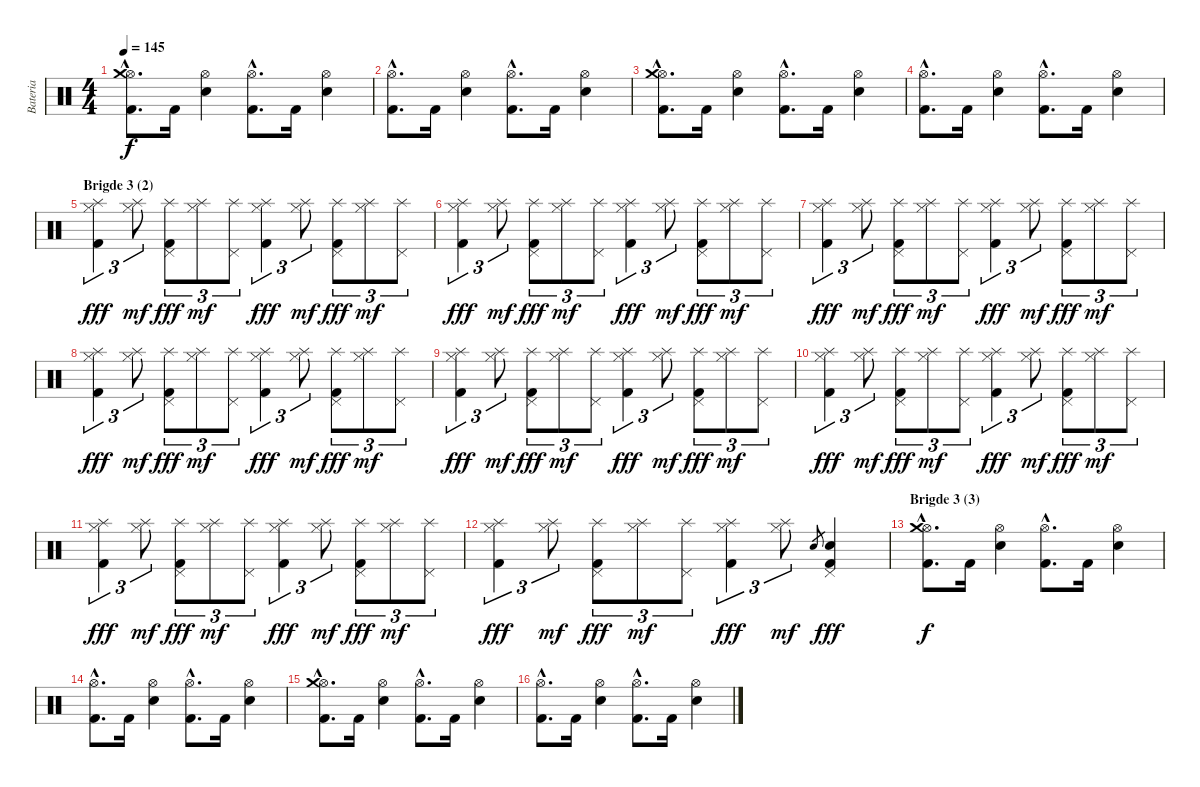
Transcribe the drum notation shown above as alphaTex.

\track ("Bateria" "Bateria") {instrument percussion}
\staff {score}
\articulation defaults
\ts (4 4)
\tempo 145
\clef neutral
\ks c
("Hi-Hat (open)"{hac} "Crash medium (hit)"{hac} "Kick (hit) 2"{hac}).8{d dy f} "Kick (hit) 2".16 ("Hi-Hat (open)" "Snare (hit) 2").4 ("Hi-Hat (open)"{hac} "Kick (hit) 2"{hac}).8{d} "Kick (hit) 2".16 ("Hi-Hat (open)" "Snare (hit) 2").4 |
("Hi-Hat (open)"{hac} "Kick (hit) 2"{hac}).8{d} "Kick (hit) 2".16 ("Hi-Hat (open)" "Snare (hit) 2").4 ("Hi-Hat (open)"{hac} "Kick (hit) 2"{hac}).8{d} "Kick (hit) 2".16 ("Hi-Hat (open)" "Snare (hit) 2").4 |
("Hi-Hat (open)"{hac} "Crash medium (hit)"{hac} "Kick (hit) 2"{hac}).8{d} "Kick (hit) 2".16 ("Hi-Hat (open)" "Snare (hit) 2").4 ("Hi-Hat (open)"{hac} "Kick (hit) 2"{hac}).8{d} "Kick (hit) 2".16 ("Hi-Hat (open)" "Snare (hit) 2").4 |
("Hi-Hat (open)"{hac} "Kick (hit) 2"{hac}).8{d} "Kick (hit) 2".16 ("Hi-Hat (open)" "Snare (hit) 2").4 ("Hi-Hat (open)"{hac} "Kick (hit) 2"{hac}).8{d} "Kick (hit) 2".16 ("Hi-Hat (open)" "Snare (hit) 2").4 |
\section ("" "Brigde 3 (2)")
("Hi-Hat (closed)" "Kick (hit) 2" "Splash (hit)").4{tu (3 2) dy fff} ("Hi-Hat (closed)" "Splash (hit)").8{tu (3 2) dy mf} ("Pedal Hi-Hat (hit)" "Splash (hit)" "Kick (hit) 2").8{tu (3 2) dy fff} ("Hi-Hat (closed)" "Splash (hit)").8{tu (3 2) dy mf} ("Pedal Hi-Hat (hit)" "Splash (hit)").8{tu (3 2)} ("Hi-Hat (closed)" "Kick (hit) 2" "Splash (hit)").4{tu (3 2) dy fff} ("Hi-Hat (closed)" "Splash (hit)").8{tu (3 2) dy mf} ("Pedal Hi-Hat (hit)" "Splash (hit)" "Kick (hit) 2").8{tu (3 2) dy fff} ("Hi-Hat (closed)" "Splash (hit)").8{tu (3 2) dy mf} ("Pedal Hi-Hat (hit)" "Splash (hit)").8{tu (3 2)} |
("Hi-Hat (closed)" "Kick (hit) 2" "Splash (hit)").4{tu (3 2) dy fff} ("Hi-Hat (closed)" "Splash (hit)").8{tu (3 2) dy mf} ("Pedal Hi-Hat (hit)" "Splash (hit)" "Kick (hit) 2").8{tu (3 2) dy fff} ("Hi-Hat (closed)" "Splash (hit)").8{tu (3 2) dy mf} ("Pedal Hi-Hat (hit)" "Splash (hit)").8{tu (3 2)} ("Hi-Hat (closed)" "Kick (hit) 2" "Splash (hit)").4{tu (3 2) dy fff} ("Hi-Hat (closed)" "Splash (hit)").8{tu (3 2) dy mf} ("Pedal Hi-Hat (hit)" "Splash (hit)" "Kick (hit) 2").8{tu (3 2) dy fff} ("Hi-Hat (closed)" "Splash (hit)").8{tu (3 2) dy mf} ("Pedal Hi-Hat (hit)" "Splash (hit)").8{tu (3 2)} |
("Hi-Hat (closed)" "Kick (hit) 2" "Splash (hit)").4{tu (3 2) dy fff} ("Hi-Hat (closed)" "Splash (hit)").8{tu (3 2) dy mf} ("Pedal Hi-Hat (hit)" "Splash (hit)" "Kick (hit) 2").8{tu (3 2) dy fff} ("Hi-Hat (closed)" "Splash (hit)").8{tu (3 2) dy mf} ("Pedal Hi-Hat (hit)" "Splash (hit)").8{tu (3 2)} ("Hi-Hat (closed)" "Kick (hit) 2" "Splash (hit)").4{tu (3 2) dy fff} ("Hi-Hat (closed)" "Splash (hit)").8{tu (3 2) dy mf} ("Pedal Hi-Hat (hit)" "Splash (hit)" "Kick (hit) 2").8{tu (3 2) dy fff} ("Hi-Hat (closed)" "Splash (hit)").8{tu (3 2) dy mf} ("Pedal Hi-Hat (hit)" "Splash (hit)").8{tu (3 2)} |
("Hi-Hat (closed)" "Kick (hit) 2" "Splash (hit)").4{tu (3 2) dy fff} ("Hi-Hat (closed)" "Splash (hit)").8{tu (3 2) dy mf} ("Pedal Hi-Hat (hit)" "Splash (hit)" "Kick (hit) 2").8{tu (3 2) dy fff} ("Hi-Hat (closed)" "Splash (hit)").8{tu (3 2) dy mf} ("Pedal Hi-Hat (hit)" "Splash (hit)").8{tu (3 2)} ("Hi-Hat (closed)" "Kick (hit) 2" "Splash (hit)").4{tu (3 2) dy fff} ("Hi-Hat (closed)" "Splash (hit)").8{tu (3 2) dy mf} ("Pedal Hi-Hat (hit)" "Splash (hit)" "Kick (hit) 2").8{tu (3 2) dy fff} ("Hi-Hat (closed)" "Splash (hit)").8{tu (3 2) dy mf} ("Pedal Hi-Hat (hit)" "Splash (hit)").8{tu (3 2)} |
("Hi-Hat (closed)" "Kick (hit) 2" "Splash (hit)").4{tu (3 2) dy fff} ("Hi-Hat (closed)" "Splash (hit)").8{tu (3 2) dy mf} ("Pedal Hi-Hat (hit)" "Splash (hit)" "Kick (hit) 2").8{tu (3 2) dy fff} ("Hi-Hat (closed)" "Splash (hit)").8{tu (3 2) dy mf} ("Pedal Hi-Hat (hit)" "Splash (hit)").8{tu (3 2)} ("Hi-Hat (closed)" "Kick (hit) 2" "Splash (hit)").4{tu (3 2) dy fff} ("Hi-Hat (closed)" "Splash (hit)").8{tu (3 2) dy mf} ("Pedal Hi-Hat (hit)" "Splash (hit)" "Kick (hit) 2").8{tu (3 2) dy fff} ("Hi-Hat (closed)" "Splash (hit)").8{tu (3 2) dy mf} ("Pedal Hi-Hat (hit)" "Splash (hit)").8{tu (3 2)} |
("Hi-Hat (closed)" "Kick (hit) 2" "Splash (hit)").4{tu (3 2) dy fff} ("Hi-Hat (closed)" "Splash (hit)").8{tu (3 2) dy mf} ("Pedal Hi-Hat (hit)" "Splash (hit)" "Kick (hit) 2").8{tu (3 2) dy fff} ("Hi-Hat (closed)" "Splash (hit)").8{tu (3 2) dy mf} ("Pedal Hi-Hat (hit)" "Splash (hit)").8{tu (3 2)} ("Hi-Hat (closed)" "Kick (hit) 2" "Splash (hit)").4{tu (3 2) dy fff} ("Hi-Hat (closed)" "Splash (hit)").8{tu (3 2) dy mf} ("Pedal Hi-Hat (hit)" "Splash (hit)" "Kick (hit) 2").8{tu (3 2) dy fff} ("Hi-Hat (closed)" "Splash (hit)").8{tu (3 2) dy mf} ("Pedal Hi-Hat (hit)" "Splash (hit)").8{tu (3 2)} |
("Hi-Hat (closed)" "Kick (hit) 2" "Splash (hit)").4{tu (3 2) dy fff} ("Hi-Hat (closed)" "Splash (hit)").8{tu (3 2) dy mf} ("Pedal Hi-Hat (hit)" "Splash (hit)" "Kick (hit) 2").8{tu (3 2) dy fff} ("Hi-Hat (closed)" "Splash (hit)").8{tu (3 2) dy mf} ("Pedal Hi-Hat (hit)" "Splash (hit)").8{tu (3 2)} ("Hi-Hat (closed)" "Kick (hit) 2" "Splash (hit)").4{tu (3 2) dy fff} ("Hi-Hat (closed)" "Splash (hit)").8{tu (3 2) dy mf} ("Pedal Hi-Hat (hit)" "Splash (hit)" "Kick (hit) 2").8{tu (3 2) dy fff} ("Hi-Hat (closed)" "Splash (hit)").8{tu (3 2) dy mf} ("Pedal Hi-Hat (hit)" "Splash (hit)").8{tu (3 2)} |
("Hi-Hat (closed)" "Kick (hit) 2" "Splash (hit)").4{tu (3 2) dy fff} ("Hi-Hat (closed)" "Splash (hit)").8{tu (3 2) dy mf} ("Pedal Hi-Hat (hit)" "Splash (hit)" "Kick (hit) 2").8{tu (3 2) dy fff} ("Hi-Hat (closed)" "Splash (hit)").8{tu (3 2) dy mf} ("Pedal Hi-Hat (hit)" "Splash (hit)").8{tu (3 2)} ("Hi-Hat (closed)" "Kick (hit) 2" "Splash (hit)").4{tu (3 2) dy fff} ("Hi-Hat (closed)" "Splash (hit)").8{tu (3 2) dy mf} "Snare (hit) 2".8{gr} ("Pedal Hi-Hat (hit)" "Snare (hit) 2" "Kick (hit) 2").4{dy fff} |
\section ("" "Brigde 3 (3)")
("Hi-Hat (open)"{hac} "Crash medium (hit)"{hac} "Kick (hit) 2"{hac}).8{d dy f} "Kick (hit) 2".16 ("Hi-Hat (open)" "Snare (hit) 2").4 ("Hi-Hat (open)"{hac} "Kick (hit) 2"{hac}).8{d} "Kick (hit) 2".16 ("Hi-Hat (open)" "Snare (hit) 2").4 |
("Hi-Hat (open)"{hac} "Kick (hit) 2"{hac}).8{d} "Kick (hit) 2".16 ("Hi-Hat (open)" "Snare (hit) 2").4 ("Hi-Hat (open)"{hac} "Kick (hit) 2"{hac}).8{d} "Kick (hit) 2".16 ("Hi-Hat (open)" "Snare (hit) 2").4 |
("Hi-Hat (open)"{hac} "Crash medium (hit)"{hac} "Kick (hit) 2"{hac}).8{d} "Kick (hit) 2".16 ("Hi-Hat (open)" "Snare (hit) 2").4 ("Hi-Hat (open)"{hac} "Kick (hit) 2"{hac}).8{d} "Kick (hit) 2".16 ("Hi-Hat (open)" "Snare (hit) 2").4 |
("Hi-Hat (open)"{hac} "Kick (hit) 2"{hac}).8{d} "Kick (hit) 2".16 ("Hi-Hat (open)" "Snare (hit) 2").4 ("Hi-Hat (open)"{hac} "Kick (hit) 2"{hac}).8{d} "Kick (hit) 2".16 ("Hi-Hat (open)" "Snare (hit) 2").4
